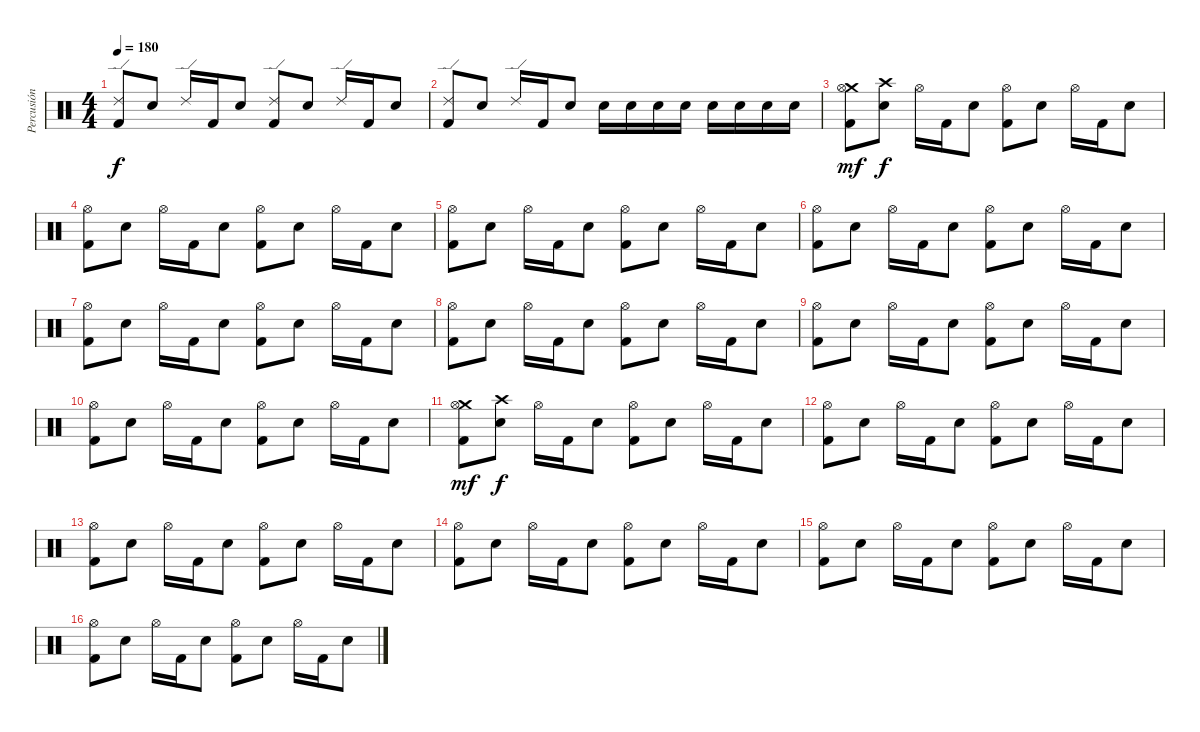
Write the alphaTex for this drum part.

\track ("Percusión" "Percusión") {instrument percussion}
\staff {score}
\articulation defaults
\ts (4 4)
\tempo 180
\clef neutral
\ks c
("Ride (edge) 2" "Kick (hit) 2").8{dy f} "Electric Snare (hit)".8 "Ride (edge) 2".16 "Kick (hit) 2".16 "Electric Snare (hit)".8 ("Ride (edge) 2" "Kick (hit) 2").8 "Electric Snare (hit)".8 "Ride (edge) 2".16 "Kick (hit) 2".16 "Electric Snare (hit)".8 |
("Ride (edge) 2" "Kick (hit) 2").8 "Electric Snare (hit)".8 "Ride (edge) 2".16 "Kick (hit) 2".16 "Electric Snare (hit)".8 "Electric Snare (hit)".16 "Electric Snare (hit)".16 "Electric Snare (hit)".16 "Electric Snare (hit)".16 "Electric Snare (hit)".16 "Electric Snare (hit)".16 "Electric Snare (hit)".16 "Electric Snare (hit)".16 |
("Crash medium (hit)" "Hi-Hat (open)" "Kick (hit) 2").8{dy mf} ("Crash high (hit)" "Electric Snare (hit)").8{dy f} "Hi-Hat (open)".16 "Kick (hit) 2".16 "Electric Snare (hit)".8 ("Hi-Hat (open)" "Kick (hit) 2").8 "Electric Snare (hit)".8 "Hi-Hat (open)".16 "Kick (hit) 2".16 "Electric Snare (hit)".8 |
("Hi-Hat (open)" "Kick (hit) 2").8 "Electric Snare (hit)".8 "Hi-Hat (open)".16 "Kick (hit) 2".16 "Electric Snare (hit)".8 ("Hi-Hat (open)" "Kick (hit) 2").8 "Electric Snare (hit)".8 "Hi-Hat (open)".16 "Kick (hit) 2".16 "Electric Snare (hit)".8 |
("Hi-Hat (open)" "Kick (hit) 2").8 "Electric Snare (hit)".8 "Hi-Hat (open)".16 "Kick (hit) 2".16 "Electric Snare (hit)".8 ("Hi-Hat (open)" "Kick (hit) 2").8 "Electric Snare (hit)".8 "Hi-Hat (open)".16 "Kick (hit) 2".16 "Electric Snare (hit)".8 |
("Hi-Hat (open)" "Kick (hit) 2").8 "Electric Snare (hit)".8 "Hi-Hat (open)".16 "Kick (hit) 2".16 "Electric Snare (hit)".8 ("Hi-Hat (open)" "Kick (hit) 2").8 "Electric Snare (hit)".8 "Hi-Hat (open)".16 "Kick (hit) 2".16 "Electric Snare (hit)".8 |
("Hi-Hat (open)" "Kick (hit) 2").8 "Electric Snare (hit)".8 "Hi-Hat (open)".16 "Kick (hit) 2".16 "Electric Snare (hit)".8 ("Hi-Hat (open)" "Kick (hit) 2").8 "Electric Snare (hit)".8 "Hi-Hat (open)".16 "Kick (hit) 2".16 "Electric Snare (hit)".8 |
("Hi-Hat (open)" "Kick (hit) 2").8 "Electric Snare (hit)".8 "Hi-Hat (open)".16 "Kick (hit) 2".16 "Electric Snare (hit)".8 ("Hi-Hat (open)" "Kick (hit) 2").8 "Electric Snare (hit)".8 "Hi-Hat (open)".16 "Kick (hit) 2".16 "Electric Snare (hit)".8 |
("Hi-Hat (open)" "Kick (hit) 2").8 "Electric Snare (hit)".8 "Hi-Hat (open)".16 "Kick (hit) 2".16 "Electric Snare (hit)".8 ("Hi-Hat (open)" "Kick (hit) 2").8 "Electric Snare (hit)".8 "Hi-Hat (open)".16 "Kick (hit) 2".16 "Electric Snare (hit)".8 |
("Hi-Hat (open)" "Kick (hit) 2").8 "Electric Snare (hit)".8 "Hi-Hat (open)".16 "Kick (hit) 2".16 "Electric Snare (hit)".8 ("Hi-Hat (open)" "Kick (hit) 2").8 "Electric Snare (hit)".8 "Hi-Hat (open)".16 "Kick (hit) 2".16 "Electric Snare (hit)".8 |
("Crash medium (hit)" "Hi-Hat (open)" "Kick (hit) 2").8{dy mf} ("Crash high (hit)" "Electric Snare (hit)").8{dy f} "Hi-Hat (open)".16 "Kick (hit) 2".16 "Electric Snare (hit)".8 ("Hi-Hat (open)" "Kick (hit) 2").8 "Electric Snare (hit)".8 "Hi-Hat (open)".16 "Kick (hit) 2".16 "Electric Snare (hit)".8 |
("Hi-Hat (open)" "Kick (hit) 2").8 "Electric Snare (hit)".8 "Hi-Hat (open)".16 "Kick (hit) 2".16 "Electric Snare (hit)".8 ("Hi-Hat (open)" "Kick (hit) 2").8 "Electric Snare (hit)".8 "Hi-Hat (open)".16 "Kick (hit) 2".16 "Electric Snare (hit)".8 |
("Hi-Hat (open)" "Kick (hit) 2").8 "Electric Snare (hit)".8 "Hi-Hat (open)".16 "Kick (hit) 2".16 "Electric Snare (hit)".8 ("Hi-Hat (open)" "Kick (hit) 2").8 "Electric Snare (hit)".8 "Hi-Hat (open)".16 "Kick (hit) 2".16 "Electric Snare (hit)".8 |
("Hi-Hat (open)" "Kick (hit) 2").8 "Electric Snare (hit)".8 "Hi-Hat (open)".16 "Kick (hit) 2".16 "Electric Snare (hit)".8 ("Hi-Hat (open)" "Kick (hit) 2").8 "Electric Snare (hit)".8 "Hi-Hat (open)".16 "Kick (hit) 2".16 "Electric Snare (hit)".8 |
("Hi-Hat (open)" "Kick (hit) 2").8 "Electric Snare (hit)".8 "Hi-Hat (open)".16 "Kick (hit) 2".16 "Electric Snare (hit)".8 ("Hi-Hat (open)" "Kick (hit) 2").8 "Electric Snare (hit)".8 "Hi-Hat (open)".16 "Kick (hit) 2".16 "Electric Snare (hit)".8 |
("Hi-Hat (open)" "Kick (hit) 2").8 "Electric Snare (hit)".8 "Hi-Hat (open)".16 "Kick (hit) 2".16 "Electric Snare (hit)".8 ("Hi-Hat (open)" "Kick (hit) 2").8 "Electric Snare (hit)".8 "Hi-Hat (open)".16 "Kick (hit) 2".16 "Electric Snare (hit)".8
